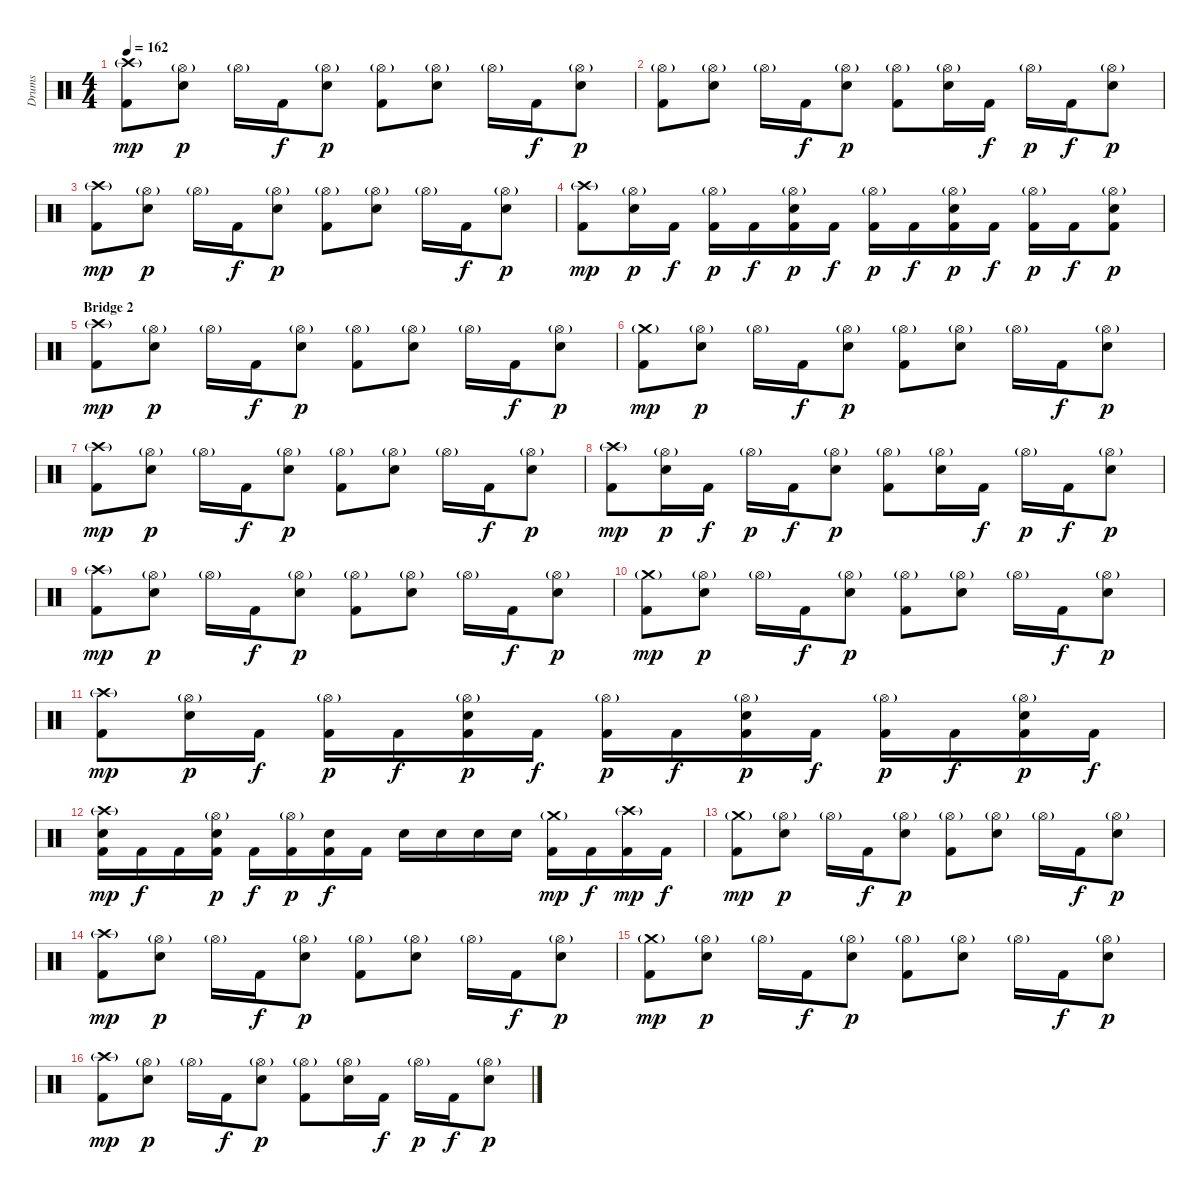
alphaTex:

\track ("Drums" "Drums") {instrument percussion}
\staff {score}
\articulation defaults
\ts (4 4)
\tempo 162
\clef neutral
\ks c
("Crash high (hit)"{g} "Kick (hit) 2").8{dy mp} ("Hi-Hat (open)"{g} "Snare (hit) 2").8{dy p} "Hi-Hat (open)"{g}.16 "Kick (hit) 2".16{dy f} ("Hi-Hat (open)"{g} "Snare (hit) 2").8{dy p} ("Hi-Hat (open)"{g} "Kick (hit) 2").8 ("Hi-Hat (open)"{g} "Snare (hit) 2").8 "Hi-Hat (open)"{g}.16 "Kick (hit) 2".16{dy f} ("Hi-Hat (open)"{g} "Snare (hit) 2").8{dy p} |
("Hi-Hat (open)"{g} "Kick (hit) 2").8 ("Hi-Hat (open)"{g} "Snare (hit) 2").8 "Hi-Hat (open)"{g}.16 "Kick (hit) 2".16{dy f} ("Hi-Hat (open)"{g} "Snare (hit) 2").8{dy p} ("Hi-Hat (open)"{g} "Kick (hit) 2").8 ("Hi-Hat (open)"{g} "Snare (hit) 2").16 "Kick (hit) 2".16{dy f} "Hi-Hat (open)"{g}.16{dy p} "Kick (hit) 2".16{dy f} ("Hi-Hat (open)"{g} "Snare (hit) 2").8{dy p} |
("Crash high (hit)"{g} "Kick (hit) 2").8{dy mp} ("Hi-Hat (open)"{g} "Snare (hit) 2").8{dy p} "Hi-Hat (open)"{g}.16 "Kick (hit) 2".16{dy f} ("Hi-Hat (open)"{g} "Snare (hit) 2").8{dy p} ("Hi-Hat (open)"{g} "Kick (hit) 2").8 ("Hi-Hat (open)"{g} "Snare (hit) 2").8 "Hi-Hat (open)"{g}.16 "Kick (hit) 2".16{dy f} ("Hi-Hat (open)"{g} "Snare (hit) 2").8{dy p} |
("Crash high (hit)"{g} "Kick (hit) 2").8{dy mp} ("Hi-Hat (open)"{g} "Snare (hit) 2").16{dy p} "Kick (hit) 2".16{dy f} ("Hi-Hat (open)"{g} "Kick (hit) 2").16{dy p} "Kick (hit) 2".16{dy f} ("Hi-Hat (open)"{g} "Snare (hit) 2" "Kick (hit) 2").16{dy p} "Kick (hit) 2".16{dy f} ("Hi-Hat (open)"{g} "Kick (hit) 2").16{dy p} "Kick (hit) 2".16{dy f} ("Hi-Hat (open)"{g} "Snare (hit) 2" "Kick (hit) 2").16{dy p} "Kick (hit) 2".16{dy f} ("Hi-Hat (open)"{g} "Kick (hit) 2").16{dy p} "Kick (hit) 2".16{dy f} ("Hi-Hat (open)"{g} "Snare (hit) 2" "Kick (hit) 2").8{dy p} |
\section ("" "Bridge 2")
("Crash high (hit)"{g} "Kick (hit) 2").8{dy mp} ("Hi-Hat (open)"{g} "Snare (hit) 2").8{dy p} "Hi-Hat (open)"{g}.16 "Kick (hit) 2".16{dy f} ("Hi-Hat (open)"{g} "Snare (hit) 2").8{dy p} ("Hi-Hat (open)"{g} "Kick (hit) 2").8 ("Hi-Hat (open)"{g} "Snare (hit) 2").8 "Hi-Hat (open)"{g}.16 "Kick (hit) 2".16{dy f} ("Hi-Hat (open)"{g} "Snare (hit) 2").8{dy p} |
("Crash medium (hit)"{g} "Kick (hit) 2").8{dy mp} ("Hi-Hat (open)"{g} "Snare (hit) 2").8{dy p} "Hi-Hat (open)"{g}.16 "Kick (hit) 2".16{dy f} ("Hi-Hat (open)"{g} "Snare (hit) 2").8{dy p} ("Hi-Hat (open)"{g} "Kick (hit) 2").8 ("Hi-Hat (open)"{g} "Snare (hit) 2").8 "Hi-Hat (open)"{g}.16 "Kick (hit) 2".16{dy f} ("Hi-Hat (open)"{g} "Snare (hit) 2").8{dy p} |
("Crash high (hit)"{g} "Kick (hit) 2").8{dy mp} ("Hi-Hat (open)"{g} "Snare (hit) 2").8{dy p} "Hi-Hat (open)"{g}.16 "Kick (hit) 2".16{dy f} ("Hi-Hat (open)"{g} "Snare (hit) 2").8{dy p} ("Hi-Hat (open)"{g} "Kick (hit) 2").8 ("Hi-Hat (open)"{g} "Snare (hit) 2").8 "Hi-Hat (open)"{g}.16 "Kick (hit) 2".16{dy f} ("Hi-Hat (open)"{g} "Snare (hit) 2").8{dy p} |
("Crash high (hit)"{g} "Kick (hit) 2").8{dy mp} ("Hi-Hat (open)"{g} "Snare (hit) 2").16{dy p} "Kick (hit) 2".16{dy f} "Hi-Hat (open)"{g}.16{dy p} "Kick (hit) 2".16{dy f} ("Hi-Hat (open)"{g} "Snare (hit) 2").8{dy p} ("Hi-Hat (open)"{g} "Kick (hit) 2").8 ("Hi-Hat (open)"{g} "Snare (hit) 2").16 "Kick (hit) 2".16{dy f} "Hi-Hat (open)"{g}.16{dy p} "Kick (hit) 2".16{dy f} ("Hi-Hat (open)"{g} "Snare (hit) 2").8{dy p} |
("Crash high (hit)"{g} "Kick (hit) 2").8{dy mp} ("Hi-Hat (open)"{g} "Snare (hit) 2").8{dy p} "Hi-Hat (open)"{g}.16 "Kick (hit) 2".16{dy f} ("Hi-Hat (open)"{g} "Snare (hit) 2").8{dy p} ("Hi-Hat (open)"{g} "Kick (hit) 2").8 ("Hi-Hat (open)"{g} "Snare (hit) 2").8 "Hi-Hat (open)"{g}.16 "Kick (hit) 2".16{dy f} ("Hi-Hat (open)"{g} "Snare (hit) 2").8{dy p} |
("Crash medium (hit)"{g} "Kick (hit) 2").8{dy mp} ("Hi-Hat (open)"{g} "Snare (hit) 2").8{dy p} "Hi-Hat (open)"{g}.16 "Kick (hit) 2".16{dy f} ("Hi-Hat (open)"{g} "Snare (hit) 2").8{dy p} ("Hi-Hat (open)"{g} "Kick (hit) 2").8 ("Hi-Hat (open)"{g} "Snare (hit) 2").8 "Hi-Hat (open)"{g}.16 "Kick (hit) 2".16{dy f} ("Hi-Hat (open)"{g} "Snare (hit) 2").8{dy p} |
("Crash high (hit)"{g} "Kick (hit) 2").8{dy mp} ("Hi-Hat (open)"{g} "Snare (hit) 2").16{dy p} "Kick (hit) 2".16{dy f} ("Hi-Hat (open)"{g} "Kick (hit) 2").16{dy p} "Kick (hit) 2".16{dy f} ("Hi-Hat (open)"{g} "Snare (hit) 2" "Kick (hit) 2").16{dy p} "Kick (hit) 2".16{dy f} ("Hi-Hat (open)"{g} "Kick (hit) 2").16{dy p} "Kick (hit) 2".16{dy f} ("Hi-Hat (open)"{g} "Snare (hit) 2" "Kick (hit) 2").16{dy p} "Kick (hit) 2".16{dy f} ("Hi-Hat (open)"{g} "Kick (hit) 2").16{dy p} "Kick (hit) 2".16{dy f} ("Hi-Hat (open)"{g} "Snare (hit) 2" "Kick (hit) 2").16{dy p} "Kick (hit) 2".16{dy f} |
("Crash high (hit)"{g} "Snare (hit) 2" "Kick (hit) 2").16{dy mp} "Kick (hit) 2".16{dy f} "Kick (hit) 2".16 ("Hi-Hat (open)"{g} "Snare (hit) 2" "Kick (hit) 2").16{dy p} "Kick (hit) 2".16{dy f} ("Hi-Hat (open)"{g} "Kick (hit) 2").16{dy p} ("Snare (hit) 2" "Kick (hit) 2").16{dy f} "Kick (hit) 2".16 "Snare (hit) 2".16 "Snare (hit) 2".16 "Snare (hit) 2".16 "Snare (hit) 2".16 ("Crash medium (hit)"{g} "Kick (hit) 2").16{dy mp} "Kick (hit) 2".16{dy f} ("Crash high (hit)"{g} "Kick (hit) 2").16{dy mp} "Kick (hit) 2".16{dy f} |
("Crash medium (hit)"{g} "Kick (hit) 2").8{dy mp} ("Hi-Hat (open)"{g} "Snare (hit) 2").8{dy p} "Hi-Hat (open)"{g}.16 "Kick (hit) 2".16{dy f} ("Hi-Hat (open)"{g} "Snare (hit) 2").8{dy p} ("Hi-Hat (open)"{g} "Kick (hit) 2").8 ("Hi-Hat (open)"{g} "Snare (hit) 2").8 "Hi-Hat (open)"{g}.16 "Kick (hit) 2".16{dy f} ("Hi-Hat (open)"{g} "Snare (hit) 2").8{dy p} |
("Crash high (hit)"{g} "Kick (hit) 2").8{dy mp} ("Hi-Hat (open)"{g} "Snare (hit) 2").8{dy p} "Hi-Hat (open)"{g}.16 "Kick (hit) 2".16{dy f} ("Hi-Hat (open)"{g} "Snare (hit) 2").8{dy p} ("Hi-Hat (open)"{g} "Kick (hit) 2").8 ("Hi-Hat (open)"{g} "Snare (hit) 2").8 "Hi-Hat (open)"{g}.16 "Kick (hit) 2".16{dy f} ("Hi-Hat (open)"{g} "Snare (hit) 2").8{dy p} |
("Crash medium (hit)"{g} "Kick (hit) 2").8{dy mp} ("Hi-Hat (open)"{g} "Snare (hit) 2").8{dy p} "Hi-Hat (open)"{g}.16 "Kick (hit) 2".16{dy f} ("Hi-Hat (open)"{g} "Snare (hit) 2").8{dy p} ("Hi-Hat (open)"{g} "Kick (hit) 2").8 ("Hi-Hat (open)"{g} "Snare (hit) 2").8 "Hi-Hat (open)"{g}.16 "Kick (hit) 2".16{dy f} ("Hi-Hat (open)"{g} "Snare (hit) 2").8{dy p} |
("Crash high (hit)"{g} "Kick (hit) 2").8{dy mp} ("Hi-Hat (open)"{g} "Snare (hit) 2").8{dy p} "Hi-Hat (open)"{g}.16 "Kick (hit) 2".16{dy f} ("Hi-Hat (open)"{g} "Snare (hit) 2").8{dy p} ("Hi-Hat (open)"{g} "Kick (hit) 2").8 ("Hi-Hat (open)"{g} "Snare (hit) 2").16 "Kick (hit) 2".16{dy f} "Hi-Hat (open)"{g}.16{dy p} "Kick (hit) 2".16{dy f} ("Hi-Hat (open)"{g} "Snare (hit) 2").8{dy p}
